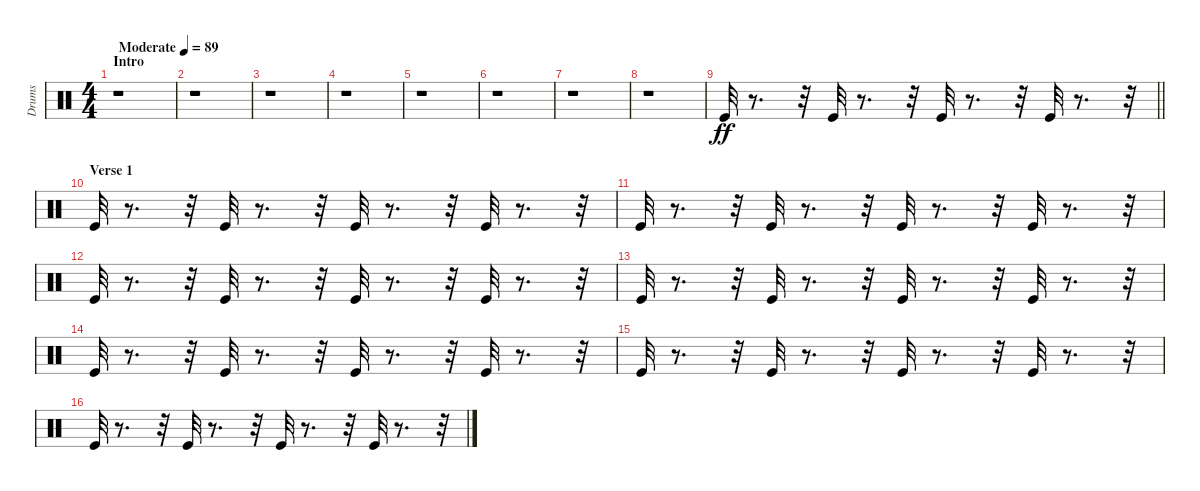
\track ("Drums   " "Drums   ") {instrument percussion}
\staff {score}
\articulation defaults
\ts (4 4)
\section ("" "Intro")
\tempo (89 "Moderate")
\clef neutral
\ks c
r.1{dy ff} |
r.1 |
r.1 |
r.1 |
r.1 |
r.1 |
r.1 |
r.1 |
\barLineRight lightlight "Kick (hit)".32
r.8{d} r.32 "Kick (hit)".32 r.8{d} r.32 "Kick (hit)".32 r.8{d} r.32 "Kick (hit)".32 r.8{d} r.32 |
\section ("" "Verse 1")
"Kick (hit)".32 r.8{d} r.32 "Kick (hit)".32 r.8{d} r.32 "Kick (hit)".32 r.8{d} r.32 "Kick (hit)".32 r.8{d} r.32 |
"Kick (hit)".32 r.8{d} r.32 "Kick (hit)".32 r.8{d} r.32 "Kick (hit)".32 r.8{d} r.32 "Kick (hit)".32 r.8{d} r.32 |
"Kick (hit)".32 r.8{d} r.32 "Kick (hit)".32 r.8{d} r.32 "Kick (hit)".32 r.8{d} r.32 "Kick (hit)".32 r.8{d} r.32 |
"Kick (hit)".32 r.8{d} r.32 "Kick (hit)".32 r.8{d} r.32 "Kick (hit)".32 r.8{d} r.32 "Kick (hit)".32 r.8{d} r.32 |
"Kick (hit)".32 r.8{d} r.32 "Kick (hit)".32 r.8{d} r.32 "Kick (hit)".32 r.8{d} r.32 "Kick (hit)".32 r.8{d} r.32 |
"Kick (hit)".32 r.8{d} r.32 "Kick (hit)".32 r.8{d} r.32 "Kick (hit)".32 r.8{d} r.32 "Kick (hit)".32 r.8{d} r.32 |
"Kick (hit)".32 r.8{d} r.32 "Kick (hit)".32 r.8{d} r.32 "Kick (hit)".32 r.8{d} r.32 "Kick (hit)".32 r.8{d} r.32
